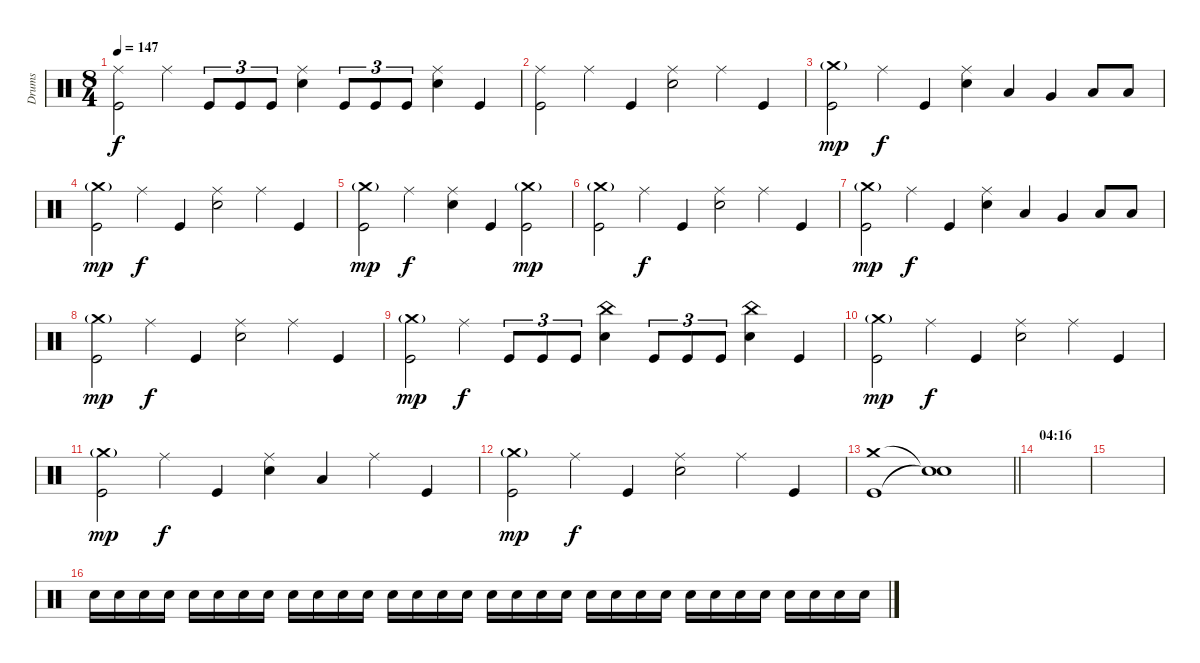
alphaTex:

\track ("Drums" "Drums") {instrument percussion}
\staff {score}
\articulation defaults
\ts (8 4)
\tempo 147
\clef neutral
\ks c
("Ride (middle)" "Kick (hit)").2{dy f} "Ride (middle)".4 "Kick (hit)".8{tu (3 2)} "Kick (hit)".8{tu (3 2)} "Kick (hit)".8{tu (3 2)} ("Ride (middle)" "Electric Snare (hit)").4 "Kick (hit)".8{tu (3 2)} "Kick (hit)".8{tu (3 2)} "Kick (hit)".8{tu (3 2)} ("Ride (middle)" "Electric Snare (hit)").4 "Kick (hit)".4 |
("Ride (middle)" "Kick (hit)").2 "Ride (middle)".4 "Kick (hit)".4 ("Ride (middle)" "Electric Snare (hit)").2 "Ride (middle)".4 "Kick (hit)".4 |
("Crash medium (hit)"{g} "Kick (hit)").2{dy mp} "Ride (middle)".4{dy f} "Kick (hit)".4 ("Ride (middle)" "Electric Snare (hit)").4 "Low Tom (hit)".4 "Very Low Tom (hit)".4 "Low Floor Tom (hit)".8 "Low Floor Tom (hit)".8 |
("Crash medium (hit)"{g} "Kick (hit)").2{dy mp} "Ride (middle)".4{dy f} "Kick (hit)".4 ("Ride (middle)" "Electric Snare (hit)").2 "Ride (middle)".4 "Kick (hit)".4 |
("Crash medium (hit)"{g} "Kick (hit)").2{dy mp} "Ride (middle)".2{dy f} ("Ride (middle)" "Electric Snare (hit)").4 "Kick (hit)".4 ("Crash medium (hit)"{g} "Kick (hit)").2{dy mp} |
("Crash medium (hit)"{g} "Kick (hit)").2 "Ride (middle)".4{dy f} "Kick (hit)".4 ("Ride (middle)" "Electric Snare (hit)").2 "Ride (middle)".4 "Kick (hit)".4 |
("Crash medium (hit)"{g} "Kick (hit)").2{dy mp} "Ride (middle)".4{dy f} "Kick (hit)".4 ("Ride (middle)" "Electric Snare (hit)").4 "Low Tom (hit)".4 "Very Low Tom (hit)".4 "Low Floor Tom (hit)".8 "Low Floor Tom (hit)".8 |
("Crash medium (hit)"{g} "Kick (hit)").2{dy mp} "Ride (middle)".4{dy f} "Kick (hit)".4 ("Ride (middle)" "Electric Snare (hit)").2 "Ride (middle)".4 "Kick (hit)".4 |
("Crash medium (hit)"{g} "Kick (hit)").2{dy mp} "Ride (middle)".4{dy f} "Kick (hit)".8{tu (3 2)} "Kick (hit)".8{tu (3 2)} "Kick (hit)".8{tu (3 2)} ("China (hit)" "Electric Snare (hit)").4 "Kick (hit)".8{tu (3 2)} "Kick (hit)".8{tu (3 2)} "Kick (hit)".8{tu (3 2)} ("China (hit)" "Electric Snare (hit)").4 "Kick (hit)".4 |
("Crash medium (hit)"{g} "Kick (hit)").2{dy mp} "Ride (middle)".4{dy f} "Kick (hit)".4 ("Ride (middle)" "Electric Snare (hit)").2 "Ride (middle)".4 "Kick (hit)".4 |
("Crash medium (hit)"{g} "Kick (hit)").2{dy mp} "Ride (middle)".4{dy f} "Kick (hit)".4 ("Ride (middle)" "Electric Snare (hit)").4 "Low Tom (hit)".4 "Ride (middle)".4 "Kick (hit)".4 |
("Crash medium (hit)"{g} "Kick (hit)").2{dy mp} "Ride (middle)".4{dy f} "Kick (hit)".4 ("Ride (middle)" "Electric Snare (hit)").2 "Ride (middle)".4 "Kick (hit)".4 |
\barLineRight lightlight
("Crash medium (hit)" "Kick (hit)").1 ("Snare (hit)"{t} "Snare (hit)"{t}).1 |
\section ("" "04:16")
|
|
"Electric Snare (hit)".16{volume 15} "Electric Snare (hit)".16 "Electric Snare (hit)".16 "Electric Snare (hit)".16 "Electric Snare (hit)".16 "Electric Snare (hit)".16 "Electric Snare (hit)".16 "Electric Snare (hit)".16 "Electric Snare (hit)".16 "Electric Snare (hit)".16 "Electric Snare (hit)".16 "Electric Snare (hit)".16 "Electric Snare (hit)".16 "Electric Snare (hit)".16 "Electric Snare (hit)".16 "Electric Snare (hit)".16 "Electric Snare (hit)".16 "Electric Snare (hit)".16 "Electric Snare (hit)".16 "Electric Snare (hit)".16 "Electric Snare (hit)".16 "Electric Snare (hit)".16 "Electric Snare (hit)".16 "Electric Snare (hit)".16 "Electric Snare (hit)".16 "Electric Snare (hit)".16 "Electric Snare (hit)".16 "Electric Snare (hit)".16 "Electric Snare (hit)".16 "Electric Snare (hit)".16 "Electric Snare (hit)".16 "Electric Snare (hit)".16
